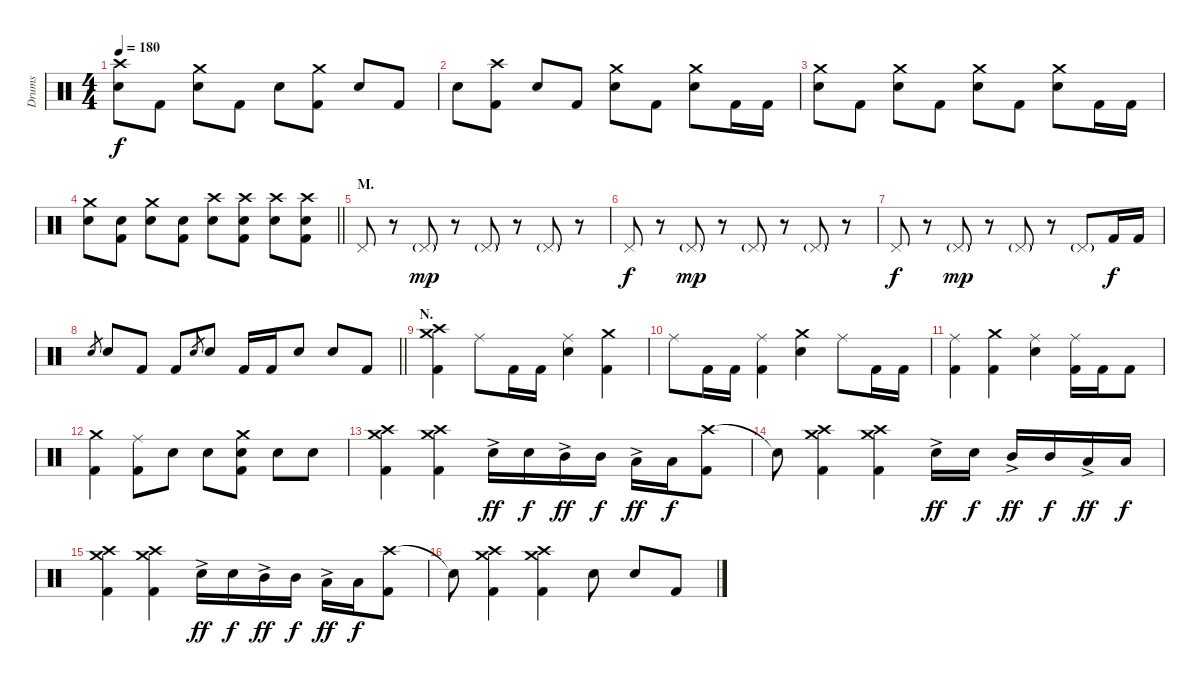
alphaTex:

\track ("Drums" "Drums") {instrument percussion}
\staff {score}
\articulation defaults
\ts (4 4)
\tempo 180
\clef neutral
\ks c
("Crash high (hit)" "Electric Snare (hit)").8{dy f} "Kick (hit) 2".8 ("Crash medium (hit)" "Electric Snare (hit)").8 "Kick (hit) 2".8 "Electric Snare (hit)".8 ("Crash medium (hit)" "Kick (hit) 2").8 "Electric Snare (hit)".8 "Kick (hit) 2".8 |
"Electric Snare (hit)".8 ("Crash high (hit)" "Kick (hit) 2").8 "Electric Snare (hit)".8 "Kick (hit) 2".8 ("Crash medium (hit)" "Electric Snare (hit)").8 "Kick (hit) 2".8 ("Crash medium (hit)" "Electric Snare (hit)").8 "Kick (hit) 2".16 "Kick (hit) 2".16 |
("Crash medium (hit)" "Electric Snare (hit)").8 "Kick (hit) 2".8 ("Crash medium (hit)" "Electric Snare (hit)").8 "Kick (hit) 2".8 ("Crash medium (hit)" "Electric Snare (hit)").8 "Kick (hit) 2".8 ("Crash medium (hit)" "Electric Snare (hit)").8 "Kick (hit) 2".16 "Kick (hit) 2".16 |
\barLineRight lightlight
("Crash medium (hit)" "Electric Snare (hit)").8 ("Electric Snare (hit)" "Kick (hit) 2").8 ("Crash medium (hit)" "Electric Snare (hit)").8 ("Electric Snare (hit)" "Kick (hit) 2").8 ("Crash high (hit)" "Electric Snare (hit)").8 ("Crash high (hit)" "Electric Snare (hit)" "Kick (hit) 2").8 ("Crash high (hit)" "Electric Snare (hit)").8 ("Crash high (hit)" "Electric Snare (hit)" "Kick (hit) 2").8 |
\section ("" "M.")
"Pedal Hi-Hat (hit)".8 r.8 "Pedal Hi-Hat (hit)"{g}.8{dy mp} r.8 "Pedal Hi-Hat (hit)"{g}.8 r.8 "Pedal Hi-Hat (hit)"{g}.8 r.8 |
"Pedal Hi-Hat (hit)".8{dy f} r.8 "Pedal Hi-Hat (hit)"{g}.8{dy mp} r.8 "Pedal Hi-Hat (hit)"{g}.8 r.8 "Pedal Hi-Hat (hit)"{g}.8 r.8 |
"Pedal Hi-Hat (hit)".8{dy f} r.8 "Pedal Hi-Hat (hit)"{g}.8{dy mp} r.8 "Pedal Hi-Hat (hit)"{g}.8 r.8 "Pedal Hi-Hat (hit)"{g}.8 "Kick (hit) 2".16{dy f} "Kick (hit) 2".16 |
\barLineRight lightlight "Electric Snare (hit)".8{gr} "Electric Snare (hit)".8 "Kick (hit) 2".8 "Kick (hit) 2".8 "Electric Snare (hit)".8{gr} "Electric Snare (hit)".8 "Kick (hit) 2".16 "Kick (hit) 2".16 "Electric Snare (hit)".8 "Electric Snare (hit)".8 "Kick (hit) 2".8
|
\section ("" "N.")
("Crash medium (hit)" "Crash high (hit)" "Kick (hit) 2").4 "Ride (middle)".8 "Kick (hit) 2".16 "Kick (hit) 2".16 ("Ride (middle)" "Electric Snare (hit)").4 ("Crash medium (hit)" "Kick (hit) 2").4 |
"Ride (middle)".8 "Kick (hit) 2".16 "Kick (hit) 2".16 ("Ride (middle)" "Kick (hit) 2").4 ("Crash medium (hit)" "Electric Snare (hit)").4 "Ride (middle)".8 "Kick (hit) 2".16 "Kick (hit) 2".16 |
("Ride (middle)" "Kick (hit) 2").4 ("Crash medium (hit)" "Kick (hit) 2").4 ("Ride (middle)" "Electric Snare (hit)").4 ("Ride (middle)" "Kick (hit) 2").16 "Kick (hit) 2".16 "Kick (hit) 2".8 |
("Crash medium (hit)" "Kick (hit) 2").4 ("Ride (middle)" "Kick (hit) 2").8 "Electric Snare (hit)".8 "Electric Snare (hit)".8 ("Crash medium (hit)" "Electric Snare (hit)" "Kick (hit) 2").8 "Electric Snare (hit)".8 "Electric Snare (hit)".8 |
("Crash medium (hit)" "Crash high (hit)" "Kick (hit) 2").4 ("Crash medium (hit)" "Crash high (hit)" "Kick (hit) 2").4 "Electric Snare (hit)"{ac}.16{dy ff} "Electric Snare (hit)".16{dy f} "Mid Tom (hit)"{ac}.16{dy ff} "Mid Tom (hit)".16{dy f} "Low Tom (hit)"{ac}.16{dy ff} "Low Tom (hit)".16{dy f} ("Crash high (hit)" "Kick (hit) 2").8 |
"Snare (hit)"{t}.8 ("Crash medium (hit)" "Crash high (hit)" "Kick (hit) 2").4 ("Crash medium (hit)" "Crash high (hit)" "Kick (hit) 2").4 "Electric Snare (hit)"{ac}.16{dy ff} "Electric Snare (hit)".16{dy f} "Mid Tom (hit)"{ac}.16{dy ff} "Mid Tom (hit)".16{dy f} "Low Tom (hit)"{ac}.16{dy ff} "Low Tom (hit)".16{dy f} |
("Crash medium (hit)" "Crash high (hit)" "Kick (hit) 2").4 ("Crash medium (hit)" "Crash high (hit)" "Kick (hit) 2").4 "Electric Snare (hit)"{ac}.16{dy ff} "Electric Snare (hit)".16{dy f} "Mid Tom (hit)"{ac}.16{dy ff} "Mid Tom (hit)".16{dy f} "Low Tom (hit)"{ac}.16{dy ff} "Low Tom (hit)".16{dy f} ("Crash high (hit)" "Kick (hit) 2").8 |
"Snare (hit)"{t}.8 ("Crash medium (hit)" "Crash high (hit)" "Kick (hit) 2").4 ("Crash medium (hit)" "Crash high (hit)" "Kick (hit) 2").4 "Electric Snare (hit)".8 "Electric Snare (hit)".8 "Kick (hit) 2".8
